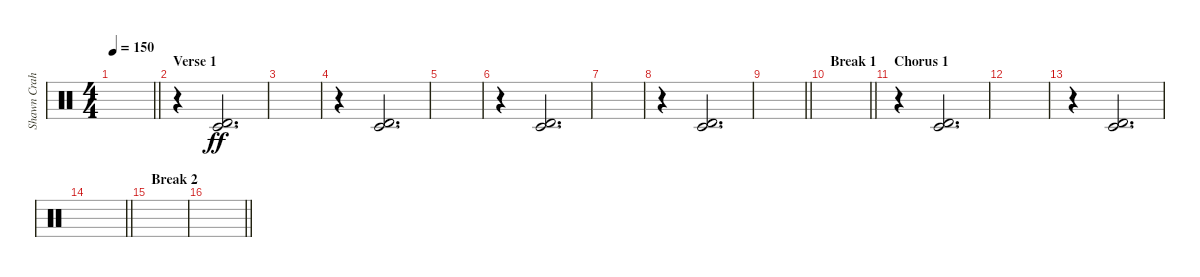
\track ("Shawn Crahan" "Shawn Crah") {instrument percussion}
\staff {score}
\articulation defaults
\ts (4 4)
\tempo 150
\clef neutral
\barLineRight lightlight
\ks c
|
\section ("" "Verse 1")
r.4 ("Timbale high (hit)" "Timbale low (hit)").2{d dy ff} |
|
r.4 ("Timbale high (hit)" "Timbale low (hit)").2{d} |
|
r.4 ("Timbale high (hit)" "Timbale low (hit)").2{d} |
|
r.4 ("Timbale high (hit)" "Timbale low (hit)").2{d} |
\barLineRight lightlight
|
\section ("" "Break 1")
\barLineRight lightlight
|
\section ("" "Chorus 1")
r.4 ("Timbale high (hit)" "Timbale low (hit)").2{d} |
|
r.4 ("Timbale high (hit)" "Timbale low (hit)").2{d} |
\barLineRight lightlight
|
\section ("" "Break 2")
|
\barLineRight lightlight
